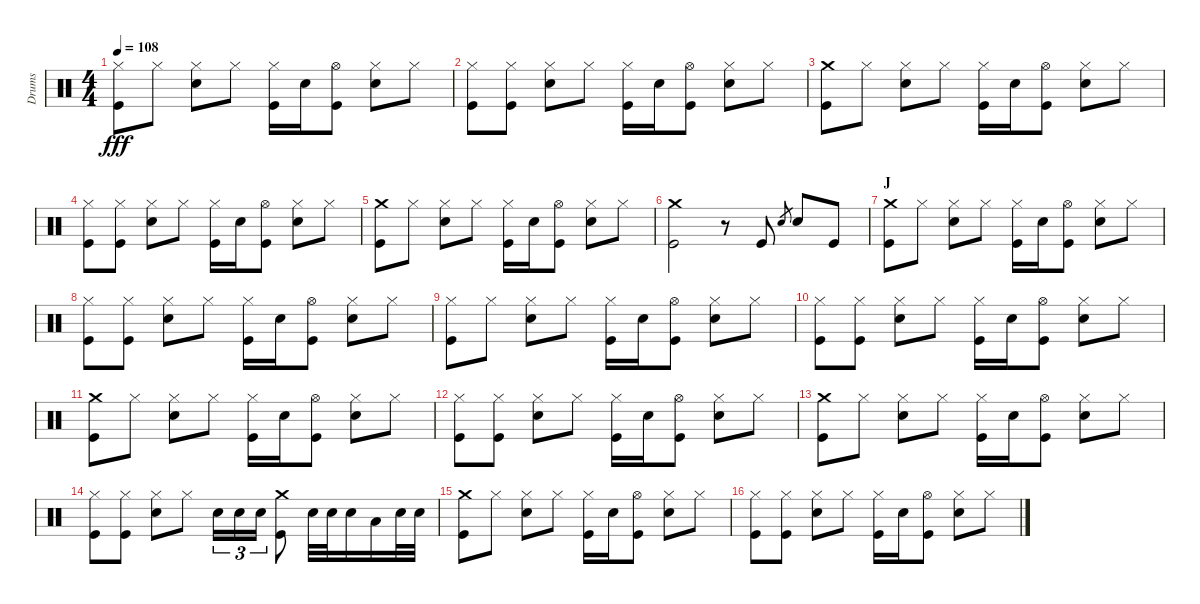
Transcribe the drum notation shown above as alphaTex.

\track ("Drums" "Drums") {instrument percussion}
\staff {score}
\articulation defaults
\ts (4 4)
\tempo 108
\clef neutral
\ks c
("Hi-Hat (closed)" "Kick (hit)").8{dy fff} "Hi-Hat (closed)".8 ("Hi-Hat (closed)" "Snare (hit) 2").8 "Hi-Hat (closed)".8 ("Hi-Hat (closed)" "Kick (hit)").16 "Snare (hit) 2".16 ("Hi-Hat (open)" "Kick (hit)").8 ("Hi-Hat (closed)" "Snare (hit) 2").8 "Hi-Hat (closed)".8 |
("Hi-Hat (closed)" "Kick (hit)").8 ("Hi-Hat (closed)" "Kick (hit)").8 ("Hi-Hat (closed)" "Snare (hit) 2").8 "Hi-Hat (closed)".8 ("Hi-Hat (closed)" "Kick (hit)").16 "Snare (hit) 2".16 ("Hi-Hat (open)" "Kick (hit)").8 ("Hi-Hat (closed)" "Snare (hit) 2").8 "Hi-Hat (closed)".8 |
("Crash medium (hit)" "Kick (hit)").8 "Hi-Hat (closed)".8 ("Hi-Hat (closed)" "Snare (hit) 2").8 "Hi-Hat (closed)".8 ("Hi-Hat (closed)" "Kick (hit)").16 "Snare (hit) 2".16 ("Hi-Hat (open)" "Kick (hit)").8 ("Hi-Hat (closed)" "Snare (hit) 2").8 "Hi-Hat (closed)".8 |
("Hi-Hat (closed)" "Kick (hit)").8 ("Hi-Hat (closed)" "Kick (hit)").8 ("Hi-Hat (closed)" "Snare (hit) 2").8 "Hi-Hat (closed)".8 ("Hi-Hat (closed)" "Kick (hit)").16 "Snare (hit) 2".16 ("Hi-Hat (open)" "Kick (hit)").8 ("Hi-Hat (closed)" "Snare (hit) 2").8 "Hi-Hat (closed)".8 |
("Crash medium (hit)" "Kick (hit)").8 "Hi-Hat (closed)".8 ("Hi-Hat (closed)" "Snare (hit) 2").8 "Hi-Hat (closed)".8 ("Hi-Hat (closed)" "Kick (hit)").16 "Snare (hit) 2".16 ("Hi-Hat (open)" "Kick (hit)").8 ("Hi-Hat (closed)" "Snare (hit) 2").8 "Hi-Hat (closed)".8 |
("Crash medium (hit)" "Kick (hit)").2 r.8 "Kick (hit)".8 "Snare (hit) 2".8{gr} "Snare (hit) 2".8 "Kick (hit)".8 |
\section ("" "J")
("Crash medium (hit)" "Kick (hit)").8 "Hi-Hat (closed)".8 ("Hi-Hat (closed)" "Snare (hit) 2").8 "Hi-Hat (closed)".8 ("Hi-Hat (closed)" "Kick (hit)").16 "Snare (hit) 2".16 ("Hi-Hat (open)" "Kick (hit)").8 ("Hi-Hat (closed)" "Snare (hit) 2").8 "Hi-Hat (closed)".8 |
("Hi-Hat (closed)" "Kick (hit)").8 ("Hi-Hat (closed)" "Kick (hit)").8 ("Hi-Hat (closed)" "Snare (hit) 2").8 "Hi-Hat (closed)".8 ("Hi-Hat (closed)" "Kick (hit)").16 "Snare (hit) 2".16 ("Hi-Hat (open)" "Kick (hit)").8 ("Hi-Hat (closed)" "Snare (hit) 2").8 "Hi-Hat (closed)".8 |
("Hi-Hat (closed)" "Kick (hit)").8 "Hi-Hat (closed)".8 ("Hi-Hat (closed)" "Snare (hit) 2").8 "Hi-Hat (closed)".8 ("Hi-Hat (closed)" "Kick (hit)").16 "Snare (hit) 2".16 ("Hi-Hat (open)" "Kick (hit)").8 ("Hi-Hat (closed)" "Snare (hit) 2").8 "Hi-Hat (closed)".8 |
("Hi-Hat (closed)" "Kick (hit)").8 ("Hi-Hat (closed)" "Kick (hit)").8 ("Hi-Hat (closed)" "Snare (hit) 2").8 "Hi-Hat (closed)".8 ("Hi-Hat (closed)" "Kick (hit)").16 "Snare (hit) 2".16 ("Hi-Hat (open)" "Kick (hit)").8 ("Hi-Hat (closed)" "Snare (hit) 2").8 "Hi-Hat (closed)".8 |
("Crash medium (hit)" "Kick (hit)").8 "Hi-Hat (closed)".8 ("Hi-Hat (closed)" "Snare (hit) 2").8 "Hi-Hat (closed)".8 ("Hi-Hat (closed)" "Kick (hit)").16 "Snare (hit) 2".16 ("Hi-Hat (open)" "Kick (hit)").8 ("Hi-Hat (closed)" "Snare (hit) 2").8 "Hi-Hat (closed)".8 |
("Hi-Hat (closed)" "Kick (hit)").8 ("Hi-Hat (closed)" "Kick (hit)").8 ("Hi-Hat (closed)" "Snare (hit) 2").8 "Hi-Hat (closed)".8 ("Hi-Hat (closed)" "Kick (hit)").16 "Snare (hit) 2".16 ("Hi-Hat (open)" "Kick (hit)").8 ("Hi-Hat (closed)" "Snare (hit) 2").8 "Hi-Hat (closed)".8 |
("Crash medium (hit)" "Kick (hit)").8 "Hi-Hat (closed)".8 ("Hi-Hat (closed)" "Snare (hit) 2").8 "Hi-Hat (closed)".8 ("Hi-Hat (closed)" "Kick (hit)").16 "Snare (hit) 2".16 ("Hi-Hat (open)" "Kick (hit)").8 ("Hi-Hat (closed)" "Snare (hit) 2").8 "Hi-Hat (closed)".8 |
("Hi-Hat (closed)" "Kick (hit)").8 ("Hi-Hat (closed)" "Kick (hit)").8 ("Hi-Hat (closed)" "Snare (hit) 2").8 "Hi-Hat (closed)".8 "Snare (hit) 2".16{tu (3 2)} "Snare (hit) 2".16{tu (3 2)} "Snare (hit) 2".16{tu (3 2)} ("Crash medium (hit)" "Kick (hit)").8 "Snare (hit) 2".32 "Snare (hit) 2".32 "Snare (hit) 2".16 "Low Tom (hit)".16 "Snare (hit) 2".32 "Snare (hit) 2".32 |
("Crash medium (hit)" "Kick (hit)").8 "Hi-Hat (closed)".8 ("Hi-Hat (closed)" "Snare (hit) 2").8 "Hi-Hat (closed)".8 ("Hi-Hat (closed)" "Kick (hit)").16 "Snare (hit) 2".16 ("Hi-Hat (open)" "Kick (hit)").8 ("Hi-Hat (closed)" "Snare (hit) 2").8 "Hi-Hat (closed)".8 |
("Hi-Hat (closed)" "Kick (hit)").8 ("Hi-Hat (closed)" "Kick (hit)").8 ("Hi-Hat (closed)" "Snare (hit) 2").8 "Hi-Hat (closed)".8 ("Hi-Hat (closed)" "Kick (hit)").16 "Snare (hit) 2".16 ("Hi-Hat (open)" "Kick (hit)").8 ("Hi-Hat (closed)" "Snare (hit) 2").8 "Hi-Hat (closed)".8
